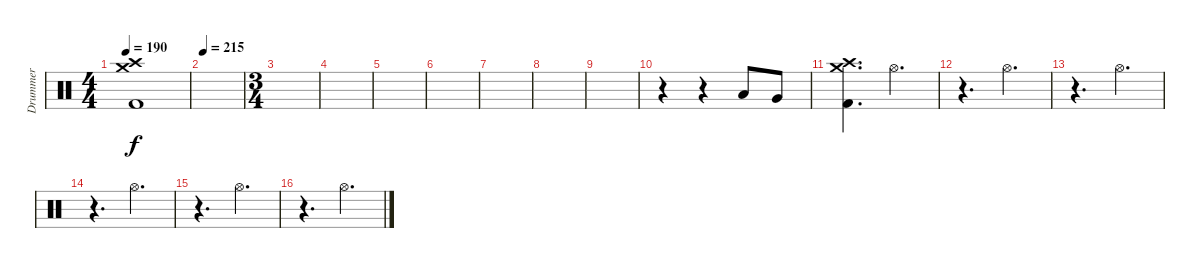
\track ("Drummer" "Drummer") {instrument percussion bank 7}
\staff {score}
\articulation defaults
\ts (4 4)
\tempo 190
\clef neutral
\ks c
("Crash medium (hit)" "Crash high (hit)" "Kick (hit) 2").1{dy f} |
\tempo 215
|
\ts (3 4)
|
|
|
|
|
|
|
r.4 r.4 "Low Tom (hit)".8 "Very Low Tom (hit)".8 |
("Crash medium (hit)" "Crash high (hit)" "Kick (hit) 2").4{d} "Hi-Hat (open)".4{d} |
r.4{d} "Hi-Hat (open)".4{d} |
r.4{d} "Hi-Hat (open)".4{d} |
r.4{d} "Hi-Hat (open)".4{d} |
r.4{d} "Hi-Hat (open)".4{d} |
r.4{d} "Hi-Hat (open)".4{d}
